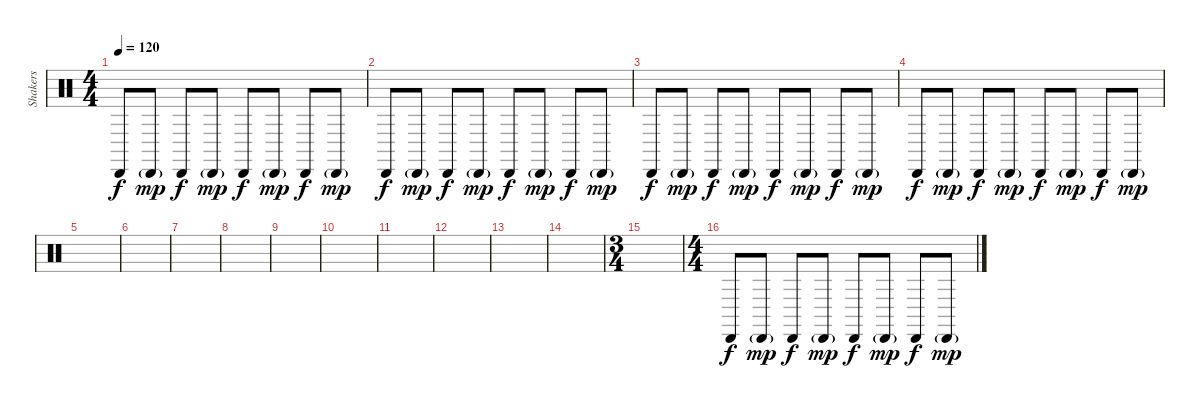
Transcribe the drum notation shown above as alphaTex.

\track ("Shakers" "Shakers") {instrument percussion}
\staff {score}
\articulation defaults
\ts (4 4)
\tempo 120
\clef neutral
\ks c "Cabasa (hit)".8{dy f} "Cabasa (hit)"{g}.8{dy mp} "Cabasa (hit)".8{dy f} "Cabasa (hit)"{g}.8{dy mp} "Cabasa (hit)".8{dy f} "Cabasa (hit)"{g}.8{dy mp} "Cabasa (hit)".8{dy f} "Cabasa (hit)"{g}.8{dy mp}
|
"Cabasa (hit)".8{dy f} "Cabasa (hit)"{g}.8{dy mp} "Cabasa (hit)".8{dy f} "Cabasa (hit)"{g}.8{dy mp} "Cabasa (hit)".8{dy f} "Cabasa (hit)"{g}.8{dy mp} "Cabasa (hit)".8{dy f} "Cabasa (hit)"{g}.8{dy mp} |
"Cabasa (hit)".8{dy f} "Cabasa (hit)"{g}.8{dy mp} "Cabasa (hit)".8{dy f} "Cabasa (hit)"{g}.8{dy mp} "Cabasa (hit)".8{dy f} "Cabasa (hit)"{g}.8{dy mp} "Cabasa (hit)".8{dy f} "Cabasa (hit)"{g}.8{dy mp} |
"Cabasa (hit)".8{dy f} "Cabasa (hit)"{g}.8{dy mp} "Cabasa (hit)".8{dy f} "Cabasa (hit)"{g}.8{dy mp} "Cabasa (hit)".8{dy f} "Cabasa (hit)"{g}.8{dy mp} "Cabasa (hit)".8{dy f} "Cabasa (hit)"{g}.8{dy mp} |
|
|
|
|
|
|
|
|
|
|
\ts (3 4)
|
\ts (4 4)
"Cabasa (hit)".8{dy f} "Cabasa (hit)"{g}.8{dy mp} "Cabasa (hit)".8{dy f} "Cabasa (hit)"{g}.8{dy mp} "Cabasa (hit)".8{dy f} "Cabasa (hit)"{g}.8{dy mp} "Cabasa (hit)".8{dy f} "Cabasa (hit)"{g}.8{dy mp}
